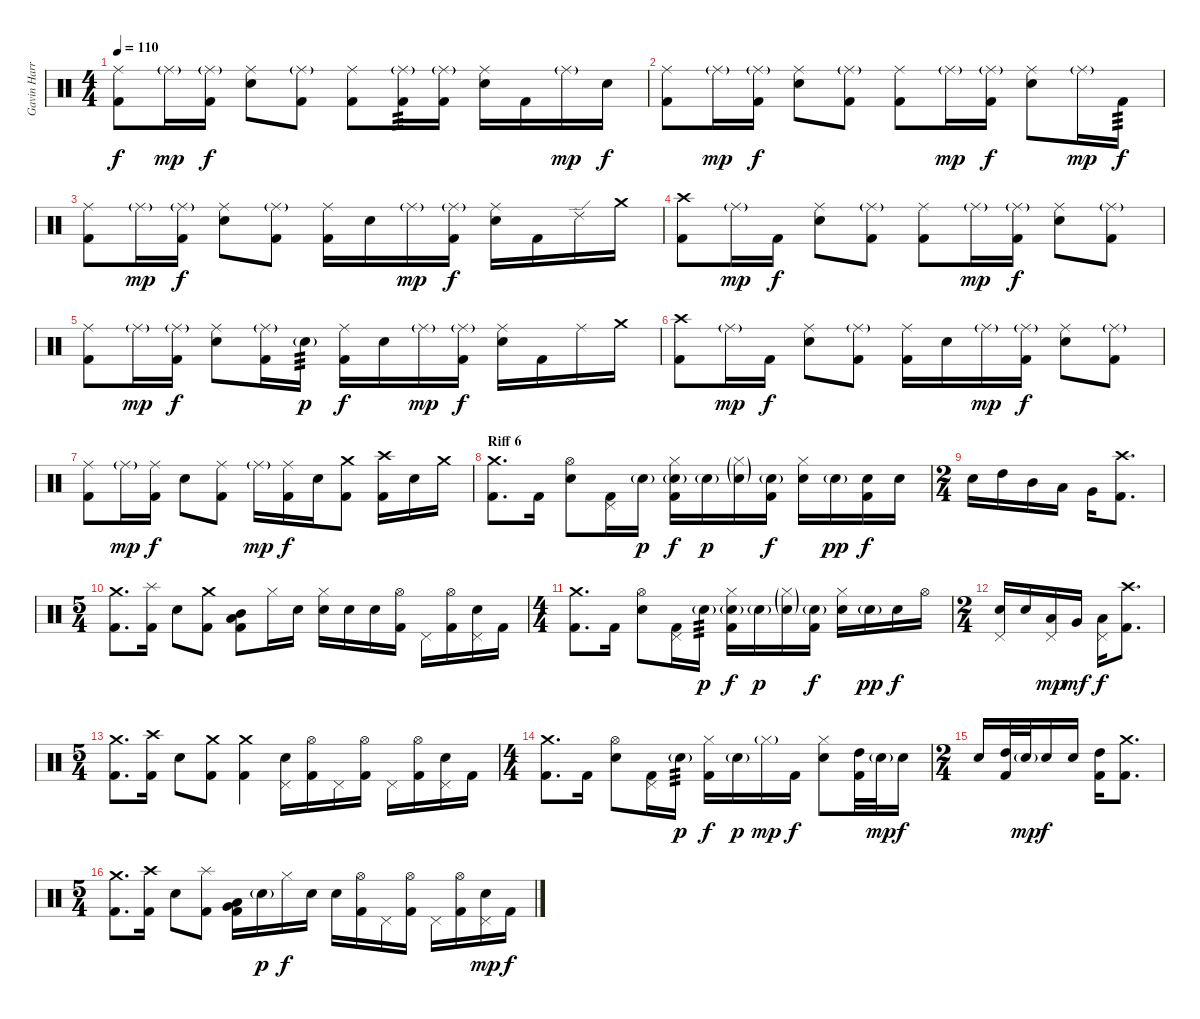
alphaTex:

\track ("Gavin Harrison - Drums" "Gavin Harr") {instrument percussion}
\staff {score}
\articulation defaults
\ts (4 4)
\tempo 110
\clef neutral
\ks c
("Ride (middle)" "Kick (hit) 2").8{dy f} "Ride (middle)"{g}.16{dy mp} ("Ride (middle)"{g} "Kick (hit) 2").16{dy f} ("Ride (middle)" "Electric Snare (hit)").8 ("Ride (middle)"{g} "Kick (hit) 2").8 ("Ride (middle)" "Kick (hit) 2").8 ("Ride (middle)"{g} "Kick (hit) 2").16{tp 3} ("Ride (middle)"{g} "Kick (hit) 2").16 ("Ride (middle)" "Electric Snare (hit)").16 "Kick (hit) 2".16 "Ride (middle)"{g}.16{dy mp} "Electric Snare (hit)".16{dy f} |
("Ride (middle)" "Kick (hit) 2").8 "Ride (middle)"{g}.16{dy mp} ("Ride (middle)"{g} "Kick (hit) 2").16{dy f} ("Ride (middle)" "Electric Snare (hit)").8 ("Ride (middle)"{g} "Kick (hit) 2").8 ("Ride (middle)" "Kick (hit) 2").8 "Ride (middle)"{g}.16{dy mp} ("Ride (middle)"{g} "Kick (hit) 2").16{dy f} ("Ride (middle)" "Electric Snare (hit)").8 "Ride (middle)"{g}.16{dy mp} "Kick (hit) 2".16{tp 3 dy f} |
("Ride (middle)" "Kick (hit) 2").8 "Ride (middle)"{g}.16{dy mp} ("Ride (middle)"{g} "Kick (hit) 2").16{dy f} ("Ride (middle)" "Electric Snare (hit)").8 ("Ride (middle)"{g} "Kick (hit) 2").8 ("Ride (middle)" "Kick (hit) 2").16 "Electric Snare (hit)".16 "Ride (middle)"{g}.16{dy mp} ("Ride (middle)"{g} "Kick (hit) 2").16{dy f} ("Ride (middle)" "Electric Snare (hit)").16 "Kick (hit) 2".16 "Ride (edge) 2".16 "Crash medium (hit)".16 |
("Crash high (hit)" "Kick (hit) 2").8 "Ride (middle)"{g}.16{dy mp} "Kick (hit) 2".16{dy f} ("Ride (middle)" "Electric Snare (hit)").8 ("Ride (middle)"{g} "Kick (hit) 2").8 ("Ride (middle)" "Kick (hit) 2").8 "Ride (middle)"{g}.16{dy mp} ("Ride (middle)"{g} "Kick (hit) 2").16{dy f} ("Ride (middle)" "Electric Snare (hit)").8 ("Ride (middle)"{g} "Kick (hit) 2").8 |
("Ride (middle)" "Kick (hit) 2").8 "Ride (middle)"{g}.16{dy mp} ("Ride (middle)"{g} "Kick (hit) 2").16{dy f} ("Ride (middle)" "Electric Snare (hit)").8 ("Ride (middle)"{g} "Kick (hit) 2").16 "Electric Snare (hit)"{g}.16{tp 3 dy p} ("Ride (middle)" "Kick (hit) 2").16{dy f} "Electric Snare (hit)".16 "Ride (middle)"{g}.16{dy mp} ("Ride (middle)"{g} "Kick (hit) 2").16{dy f} ("Ride (middle)" "Electric Snare (hit)").16 "Kick (hit) 2".16 "Ride (middle)".16 "Crash medium (hit)".16 |
("Crash high (hit)" "Kick (hit) 2").8 "Ride (middle)"{g}.16{dy mp} "Kick (hit) 2".16{dy f} ("Ride (middle)" "Electric Snare (hit)").8 ("Ride (middle)"{g} "Kick (hit) 2").8 ("Ride (middle)" "Kick (hit) 2").16 "Electric Snare (hit)".16 "Ride (middle)"{g}.16{dy mp} ("Ride (middle)"{g} "Kick (hit) 2").16{dy f} ("Ride (middle)" "Electric Snare (hit)").8 ("Ride (middle)"{g} "Kick (hit) 2").8 |
("Ride (middle)" "Kick (hit) 2").8 "Ride (middle)"{g}.16{dy mp} ("Ride (middle)" "Kick (hit) 2").16{dy f} "Electric Snare (hit)".8 ("Ride (middle)" "Kick (hit) 2").8 "Ride (middle)"{g}.16{dy mp} ("Ride (middle)" "Kick (hit) 2").16{dy f} "Electric Snare (hit)".16 ("Crash medium (hit)" "Kick (hit) 2").8 ("Crash high (hit)" "Kick (hit) 2").16 "Electric Snare (hit)".16 "Crash medium (hit)".16 |
\section ("" "Riff 6")
("Crash medium (hit)" "Kick (hit) 2").8{d} "Kick (hit) 2".16 ("Hi-Hat (open)" "Electric Snare (hit)").8 ("Pedal Hi-Hat (hit)" "Kick (hit) 2").16 "Electric Snare (hit)"{g}.16{dy p} ("Hi-Hat (closed)" "Electric Snare (hit)"{g} "Kick (hit) 2").16{dy f} "Electric Snare (hit)"{g}.16{dy p} ("Hi-Hat (closed)"{g} "Electric Snare (hit)"{g}).16 ("Electric Snare (hit)"{g} "Kick (hit) 2").16{dy f} ("Hi-Hat (closed)" "Electric Snare (hit)").16 "Electric Snare (hit)"{g}.16{dy pp} ("Electric Snare (hit)" "Kick (hit) 2").16{bd 480 dy f} "Electric Snare (hit)".16 |
\ts (2 4)
"Electric Snare (hit)".16 "High Tom (hit)".16 "Mid Tom (hit)".16 "Low Tom (hit)".16 "Very Low Tom (hit)".16 ("Crash high (hit)" "Kick (hit) 2").8{d} |
\ts (5 4)
("Crash medium (hit)" "Kick (hit) 2").8{d} ("Splash (hit)" "Kick (hit) 2").16 "Electric Snare (hit)".8 ("Crash medium (hit)" "Kick (hit) 2").8 ("Mid Tom (hit)" "Low Tom (hit)" "Kick (hit) 2").8 "Hi-Hat (closed)".16 "Electric Snare (hit)".16 ("Hi-Hat (closed)" "Electric Snare (hit)").16 "Electric Snare (hit)".16 "Electric Snare (hit)".16 ("Hi-Hat (open)" "Kick (hit) 2").16 "Pedal Hi-Hat (hit)".16 ("Hi-Hat (open)" "Kick (hit) 2").16 ("Pedal Hi-Hat (hit)" "Electric Snare (hit)").16 "Kick (hit) 2".16 |
\ts (4 4)
("Crash medium (hit)" "Kick (hit) 2").8{d} "Kick (hit) 2".16 ("Hi-Hat (open)" "Electric Snare (hit)").8 ("Pedal Hi-Hat (hit)" "Kick (hit) 2").16 "Electric Snare (hit)"{g}.16{tp 3 dy p} ("Hi-Hat (closed)" "Electric Snare (hit)"{g} "Kick (hit) 2").16{dy f} "Electric Snare (hit)"{g}.16{dy p} ("Hi-Hat (closed)"{g} "Electric Snare (hit)"{g}).16 ("Electric Snare (hit)"{g} "Kick (hit) 2").16{dy f} ("Hi-Hat (closed)" "Electric Snare (hit)").16 "Electric Snare (hit)"{g}.16{dy pp} "Electric Snare (hit)".16{dy f} "Hi-Hat (open)".16 |
\ts (2 4)
("Pedal Hi-Hat (hit)" "Electric Snare (hit)").16 "Electric Snare (hit)".16 ("Pedal Hi-Hat (hit)" "Low Floor Tom (hit)").16{dy mp} "Very Low Tom (hit)".16{dy mf} ("Pedal Hi-Hat (hit)" "Low Tom (hit)").16{dy f} ("Crash high (hit)" "Kick (hit) 2").8{d} |
\ts (5 4)
("Crash medium (hit)" "Kick (hit) 2").8{d} ("Crash high (hit)" "Kick (hit) 2").16 "Electric Snare (hit)".8 ("Crash medium (hit)" "Kick (hit) 2").8 ("Crash medium (hit)" "Kick (hit) 2").4 ("Pedal Hi-Hat (hit)" "Electric Snare (hit)").16 ("Hi-Hat (open)" "Kick (hit) 2").16 "Pedal Hi-Hat (hit)".16 ("Hi-Hat (open)" "Kick (hit) 2").16 "Pedal Hi-Hat (hit)".16 ("Hi-Hat (open)" "Kick (hit) 2").16 ("Pedal Hi-Hat (hit)" "Electric Snare (hit)").16 "Kick (hit) 2".16 |
\ts (4 4)
("Crash medium (hit)" "Kick (hit) 2").8{d} "Kick (hit) 2".16 ("Hi-Hat (open)" "Electric Snare (hit)").8 ("Pedal Hi-Hat (hit)" "Kick (hit) 2").16 "Electric Snare (hit)"{g}.16{tp 3 dy p} ("Hi-Hat (closed)" "Kick (hit) 2").16{dy f} "Electric Snare (hit)"{g}.16{dy p} "Hi-Hat (closed)"{g}.16{dy mp} "Kick (hit) 2".16{dy f} ("Hi-Hat (closed)" "Electric Snare (hit)").8 ("High Tom (hit)" "Kick (hit) 2").32{bd 480} "Electric Snare (hit)"{g}.32{dy mp} "Electric Snare (hit)".16{dy f} |
\ts (2 4)
"Electric Snare (hit)".16 ("High Tom (hit)" "Kick (hit) 2").32{bd 480} "Electric Snare (hit)"{g}.32{dy mp} "Electric Snare (hit)".16{dy f} "Electric Snare (hit)".16 ("High Tom (hit)" "Kick (hit) 2").16 ("Crash medium (hit)" "Kick (hit) 2").8{d} |
\ts (5 4)
("Crash medium (hit)" "Kick (hit) 2").8{d} ("Crash high (hit)" "Kick (hit) 2").16 "Electric Snare (hit)".8 ("Splash (hit)" "Kick (hit) 2").8 ("Low Tom (hit)" "Very Low Tom (hit)" "Kick (hit) 2").16 "Electric Snare (hit)"{g}.16{dy p} "Hi-Hat (closed)".16{dy f} "Electric Snare (hit)".16 "Electric Snare (hit)".16 ("Hi-Hat (open)" "Kick (hit) 2").16 "Pedal Hi-Hat (hit)".16 ("Hi-Hat (open)" "Kick (hit) 2").16 "Pedal Hi-Hat (hit)".16 ("Hi-Hat (open)" "Kick (hit) 2").16 ("Pedal Hi-Hat (hit)" "Electric Snare (hit)").16{dy mp} "Kick (hit) 2".16{dy f}
